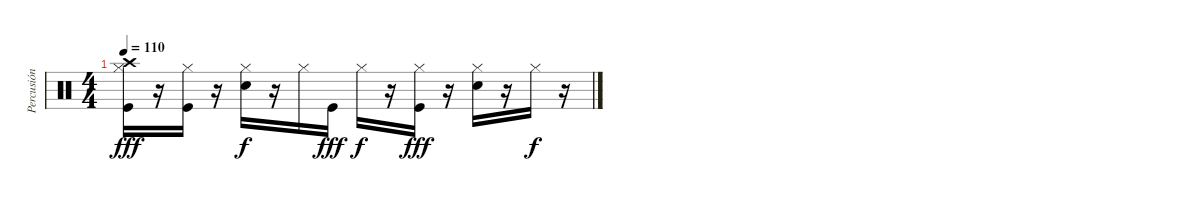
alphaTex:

\track ("Percusión" "Percusión") {instrument percussion}
\staff {score}
\articulation defaults
\ts (4 4)
\tempo 110
\clef neutral
\ks c
("Hi-Hat (closed)" "Crash high (hit)" "Kick (hit)").16{dy fff} r.16 ("Hi-Hat (closed)" "Kick (hit)").16 r.16 ("Hi-Hat (closed)" "Electric Snare (hit)").16{dy f} r.16 "Hi-Hat (closed)".16 "Kick (hit)".16{dy fff} "Hi-Hat (closed)".16{dy f} r.16 ("Hi-Hat (closed)" "Kick (hit)").16{dy fff} r.16 ("Hi-Hat (closed)" "Electric Snare (hit)").16 r.16 "Hi-Hat (closed)".16{dy f} r.16
